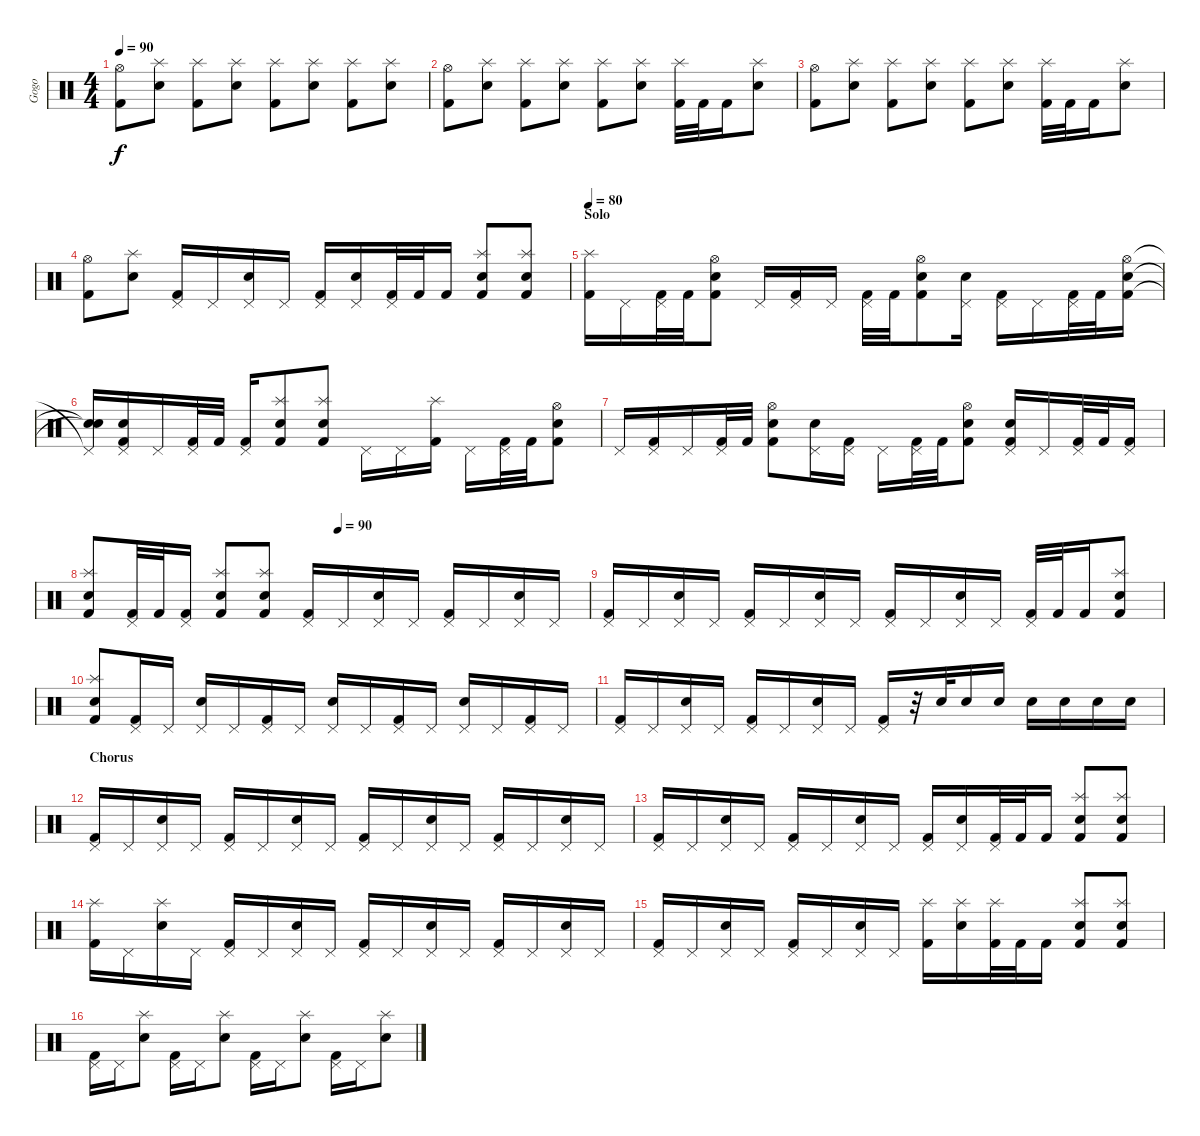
\track ("Gogo" "Gogo") {instrument percussion}
\staff {score}
\articulation defaults
\ts (4 4)
\tempo 90
\clef neutral
\ks c
("Hi-Hat (open)" "Kick (hit) 2").8{dy f} ("Splash (hit)" "Electric Snare (hit)").8 ("Splash (hit)" "Kick (hit) 2").8 ("Splash (hit)" "Electric Snare (hit)").8 ("Splash (hit)" "Kick (hit) 2").8 ("Splash (hit)" "Electric Snare (hit)").8 ("Splash (hit)" "Kick (hit) 2").8 ("Splash (hit)" "Electric Snare (hit)").8 |
("Hi-Hat (open)" "Kick (hit) 2").8 ("Splash (hit)" "Electric Snare (hit)").8 ("Splash (hit)" "Kick (hit) 2").8 ("Splash (hit)" "Electric Snare (hit)").8 ("Splash (hit)" "Kick (hit) 2").8 ("Splash (hit)" "Electric Snare (hit)").8 ("Splash (hit)" "Kick (hit) 2").32 "Kick (hit) 2".32 "Kick (hit) 2".16 ("Splash (hit)" "Electric Snare (hit)").8 |
("Hi-Hat (open)" "Kick (hit) 2").8 ("Splash (hit)" "Electric Snare (hit)").8 ("Splash (hit)" "Kick (hit) 2").8 ("Splash (hit)" "Electric Snare (hit)").8 ("Splash (hit)" "Kick (hit) 2").8 ("Splash (hit)" "Electric Snare (hit)").8 ("Splash (hit)" "Kick (hit) 2").32 "Kick (hit) 2".32 "Kick (hit) 2".16 ("Splash (hit)" "Electric Snare (hit)").8 |
("Hi-Hat (open)" "Kick (hit) 2").8 ("Splash (hit)" "Electric Snare (hit)").8 ("Pedal Hi-Hat (hit)" "Kick (hit) 2").16 "Pedal Hi-Hat (hit)".16 ("Pedal Hi-Hat (hit)" "Electric Snare (hit)").16 "Pedal Hi-Hat (hit)".16 ("Pedal Hi-Hat (hit)" "Kick (hit) 2").16 ("Pedal Hi-Hat (hit)" "Electric Snare (hit)").16 ("Pedal Hi-Hat (hit)" "Kick (hit) 2").32 "Kick (hit) 2".32 "Kick (hit) 2".16 ("Splash (hit)" "Electric Snare (hit)" "Kick (hit) 2").8 ("Splash (hit)" "Electric Snare (hit)" "Kick (hit) 2").8 |
\section ("" "Solo")
\tempo 80
("Splash (hit)" "Kick (hit) 2").16 "Pedal Hi-Hat (hit)".16 ("Pedal Hi-Hat (hit)" "Kick (hit) 2").32 "Kick (hit) 2".32 ("Hi-Hat (open)" "Electric Snare (hit)" "Kick (hit) 2").8 "Pedal Hi-Hat (hit)".16 ("Pedal Hi-Hat (hit)" "Kick (hit) 2").16 "Pedal Hi-Hat (hit)".16 ("Pedal Hi-Hat (hit)" "Kick (hit) 2").32 "Kick (hit) 2".32 ("Hi-Hat (open)" "Electric Snare (hit)" "Kick (hit) 2").8 ("Pedal Hi-Hat (hit)" "Electric Snare (hit)").16 ("Pedal Hi-Hat (hit)" "Kick (hit) 2").16 "Pedal Hi-Hat (hit)".16 ("Pedal Hi-Hat (hit)" "Kick (hit) 2").32 "Kick (hit) 2".32 ("Hi-Hat (open)" "Electric Snare (hit)" "Kick (hit) 2").16 |
("Pedal Hi-Hat (hit)"{t} "Snare (hit)"{t} "Snare (hit)"{t}).16 ("Pedal Hi-Hat (hit)" "Electric Snare (hit)" "Kick (hit) 2").16 "Pedal Hi-Hat (hit)".16 ("Pedal Hi-Hat (hit)" "Kick (hit) 2").32 "Kick (hit) 2".32 ("Pedal Hi-Hat (hit)" "Kick (hit) 2").16 ("Splash (hit)" "Electric Snare (hit)" "Kick (hit) 2").8 ("Splash (hit)" "Electric Snare (hit)" "Kick (hit) 2").8 "Pedal Hi-Hat (hit)".16 "Pedal Hi-Hat (hit)".16 ("Splash (hit)" "Kick (hit) 2").16 "Pedal Hi-Hat (hit)".16 ("Pedal Hi-Hat (hit)" "Kick (hit) 2").32 "Kick (hit) 2".32 ("Hi-Hat (open)" "Electric Snare (hit)" "Kick (hit) 2").8 |
"Pedal Hi-Hat (hit)".16 ("Pedal Hi-Hat (hit)" "Kick (hit) 2").16 "Pedal Hi-Hat (hit)".16 ("Pedal Hi-Hat (hit)" "Kick (hit) 2").32 "Kick (hit) 2".32 ("Hi-Hat (open)" "Electric Snare (hit)" "Kick (hit) 2").8 ("Pedal Hi-Hat (hit)" "Electric Snare (hit)").16 ("Pedal Hi-Hat (hit)" "Kick (hit) 2").16 "Pedal Hi-Hat (hit)".16 ("Pedal Hi-Hat (hit)" "Kick (hit) 2").32 "Kick (hit) 2".32 ("Hi-Hat (open)" "Electric Snare (hit)" "Kick (hit) 2").8 ("Pedal Hi-Hat (hit)" "Electric Snare (hit)" "Kick (hit) 2").16 "Pedal Hi-Hat (hit)".16 ("Pedal Hi-Hat (hit)" "Kick (hit) 2").32 "Kick (hit) 2".32 ("Pedal Hi-Hat (hit)" "Kick (hit) 2").16 |
\tempo (90 0.5)
("Splash (hit)" "Electric Snare (hit)" "Kick (hit) 2").8 ("Pedal Hi-Hat (hit)" "Kick (hit) 2").32 "Kick (hit) 2".32 ("Pedal Hi-Hat (hit)" "Kick (hit) 2").16 ("Splash (hit)" "Electric Snare (hit)" "Kick (hit) 2").8 ("Splash (hit)" "Electric Snare (hit)" "Kick (hit) 2").8 ("Pedal Hi-Hat (hit)" "Kick (hit) 2").16 "Pedal Hi-Hat (hit)".16 ("Pedal Hi-Hat (hit)" "Electric Snare (hit)").16 "Pedal Hi-Hat (hit)".16 ("Pedal Hi-Hat (hit)" "Kick (hit) 2").16 "Pedal Hi-Hat (hit)".16 ("Pedal Hi-Hat (hit)" "Electric Snare (hit)").16 "Pedal Hi-Hat (hit)".16 |
("Pedal Hi-Hat (hit)" "Kick (hit) 2").16 "Pedal Hi-Hat (hit)".16 ("Pedal Hi-Hat (hit)" "Electric Snare (hit)").16 "Pedal Hi-Hat (hit)".16 ("Pedal Hi-Hat (hit)" "Kick (hit) 2").16 "Pedal Hi-Hat (hit)".16 ("Pedal Hi-Hat (hit)" "Electric Snare (hit)").16 "Pedal Hi-Hat (hit)".16 ("Pedal Hi-Hat (hit)" "Kick (hit) 2").16 "Pedal Hi-Hat (hit)".16 ("Pedal Hi-Hat (hit)" "Electric Snare (hit)").16 "Pedal Hi-Hat (hit)".16 ("Pedal Hi-Hat (hit)" "Kick (hit) 2").32 "Kick (hit) 2".32 "Kick (hit) 2".16 ("Splash (hit)" "Electric Snare (hit)" "Kick (hit) 2").8 |
("Splash (hit)" "Electric Snare (hit)" "Kick (hit) 2").8 ("Pedal Hi-Hat (hit)" "Kick (hit) 2").16 "Pedal Hi-Hat (hit)".16 ("Pedal Hi-Hat (hit)" "Electric Snare (hit)").16 "Pedal Hi-Hat (hit)".16 ("Pedal Hi-Hat (hit)" "Kick (hit) 2").16 "Pedal Hi-Hat (hit)".16 ("Pedal Hi-Hat (hit)" "Electric Snare (hit)").16 "Pedal Hi-Hat (hit)".16 ("Pedal Hi-Hat (hit)" "Kick (hit) 2").16 "Pedal Hi-Hat (hit)".16 ("Pedal Hi-Hat (hit)" "Electric Snare (hit)").16 "Pedal Hi-Hat (hit)".16 ("Pedal Hi-Hat (hit)" "Kick (hit) 2").16 "Pedal Hi-Hat (hit)".16 |
("Pedal Hi-Hat (hit)" "Kick (hit) 2").16 "Pedal Hi-Hat (hit)".16 ("Pedal Hi-Hat (hit)" "Electric Snare (hit)").16 "Pedal Hi-Hat (hit)".16 ("Pedal Hi-Hat (hit)" "Kick (hit) 2").16 "Pedal Hi-Hat (hit)".16 ("Pedal Hi-Hat (hit)" "Electric Snare (hit)").16 "Pedal Hi-Hat (hit)".16 ("Pedal Hi-Hat (hit)" "Kick (hit) 2").16 r.32 "Electric Snare (hit)".32 "Electric Snare (hit)".16 "Electric Snare (hit)".16 "Electric Snare (hit)".16 "Electric Snare (hit)".16 "Electric Snare (hit)".16 "Electric Snare (hit)".16 |
\section ("" "Chorus")
("Pedal Hi-Hat (hit)" "Kick (hit) 2").16 "Pedal Hi-Hat (hit)".16 ("Pedal Hi-Hat (hit)" "Electric Snare (hit)").16 "Pedal Hi-Hat (hit)".16 ("Pedal Hi-Hat (hit)" "Kick (hit) 2").16 "Pedal Hi-Hat (hit)".16 ("Pedal Hi-Hat (hit)" "Electric Snare (hit)").16 "Pedal Hi-Hat (hit)".16 ("Pedal Hi-Hat (hit)" "Kick (hit) 2").16 "Pedal Hi-Hat (hit)".16 ("Pedal Hi-Hat (hit)" "Electric Snare (hit)").16 "Pedal Hi-Hat (hit)".16 ("Pedal Hi-Hat (hit)" "Kick (hit) 2").16 "Pedal Hi-Hat (hit)".16 ("Pedal Hi-Hat (hit)" "Electric Snare (hit)").16 "Pedal Hi-Hat (hit)".16 |
("Pedal Hi-Hat (hit)" "Kick (hit) 2").16 "Pedal Hi-Hat (hit)".16 ("Pedal Hi-Hat (hit)" "Electric Snare (hit)").16 "Pedal Hi-Hat (hit)".16 ("Pedal Hi-Hat (hit)" "Kick (hit) 2").16 "Pedal Hi-Hat (hit)".16 ("Pedal Hi-Hat (hit)" "Electric Snare (hit)").16 "Pedal Hi-Hat (hit)".16 ("Pedal Hi-Hat (hit)" "Kick (hit) 2").16 ("Pedal Hi-Hat (hit)" "Electric Snare (hit)").16 ("Pedal Hi-Hat (hit)" "Kick (hit) 2").32 "Kick (hit) 2".32 "Kick (hit) 2".16 ("Splash (hit)" "Electric Snare (hit)" "Kick (hit) 2").8 ("Splash (hit)" "Electric Snare (hit)" "Kick (hit) 2").8 |
("Splash (hit)" "Kick (hit) 2").16 "Pedal Hi-Hat (hit)".16 ("Splash (hit)" "Electric Snare (hit)").16 "Pedal Hi-Hat (hit)".16 ("Pedal Hi-Hat (hit)" "Kick (hit) 2").16 "Pedal Hi-Hat (hit)".16 ("Pedal Hi-Hat (hit)" "Electric Snare (hit)").16 "Pedal Hi-Hat (hit)".16 ("Pedal Hi-Hat (hit)" "Kick (hit) 2").16 "Pedal Hi-Hat (hit)".16 ("Pedal Hi-Hat (hit)" "Electric Snare (hit)").16 "Pedal Hi-Hat (hit)".16 ("Pedal Hi-Hat (hit)" "Kick (hit) 2").16 "Pedal Hi-Hat (hit)".16 ("Pedal Hi-Hat (hit)" "Electric Snare (hit)").16 "Pedal Hi-Hat (hit)".16 |
("Pedal Hi-Hat (hit)" "Kick (hit) 2").16 "Pedal Hi-Hat (hit)".16 ("Pedal Hi-Hat (hit)" "Electric Snare (hit)").16 "Pedal Hi-Hat (hit)".16 ("Pedal Hi-Hat (hit)" "Kick (hit) 2").16 "Pedal Hi-Hat (hit)".16 ("Pedal Hi-Hat (hit)" "Electric Snare (hit)").16 "Pedal Hi-Hat (hit)".16 ("Splash (hit)" "Kick (hit) 2").16 ("Splash (hit)" "Electric Snare (hit)").16 ("Splash (hit)" "Kick (hit) 2").32 "Kick (hit) 2".32 "Kick (hit) 2".16 ("Splash (hit)" "Electric Snare (hit)" "Kick (hit) 2").8 ("Splash (hit)" "Electric Snare (hit)" "Kick (hit) 2").8 |
("Pedal Hi-Hat (hit)" "Kick (hit) 2").16 "Pedal Hi-Hat (hit)".16 ("Splash (hit)" "Electric Snare (hit)").8 ("Pedal Hi-Hat (hit)" "Kick (hit) 2").16 "Pedal Hi-Hat (hit)".16 ("Splash (hit)" "Electric Snare (hit)").8 ("Pedal Hi-Hat (hit)" "Kick (hit) 2").16 "Pedal Hi-Hat (hit)".16 ("Splash (hit)" "Electric Snare (hit)").8 ("Pedal Hi-Hat (hit)" "Kick (hit) 2").16 "Pedal Hi-Hat (hit)".16 ("Splash (hit)" "Electric Snare (hit)").8
